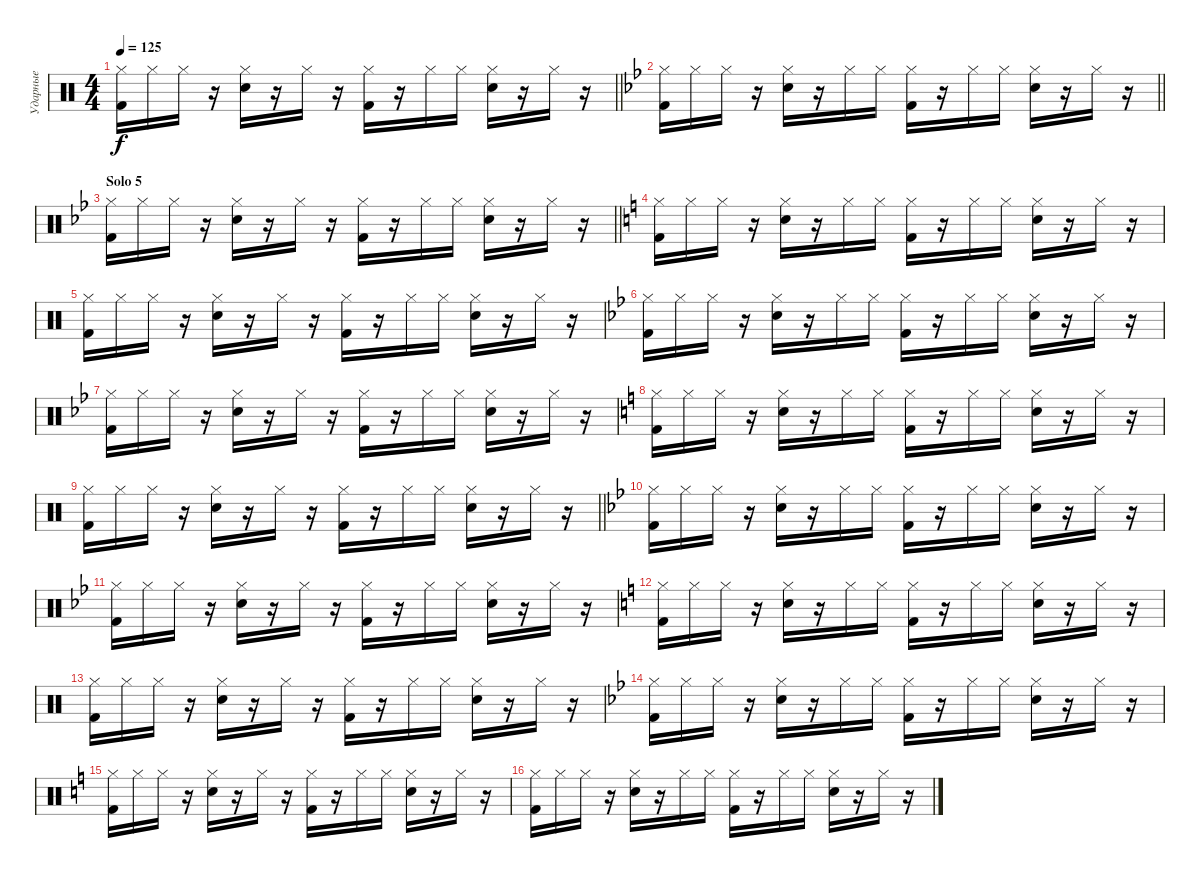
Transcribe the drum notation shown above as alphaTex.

\track ("Ударные" "Ударные") {instrument percussion}
\staff {score}
\articulation defaults
\ts (4 4)
\tempo 125
\clef neutral
\barLineRight lightlight
\ks c
("Kick (hit) 2" "Hi-Hat (closed)").16{dy f} "Hi-Hat (closed)".16 "Hi-Hat (closed)".16 r.16 ("Snare (hit) 2" "Hi-Hat (closed)").16 r.16 "Hi-Hat (closed)".16 r.16 ("Kick (hit) 2" "Hi-Hat (closed)").16 r.16 "Hi-Hat (closed)".16 "Hi-Hat (closed)".16 ("Snare (hit) 2" "Hi-Hat (closed)").16 r.16 "Hi-Hat (closed)".16 r.16 |
\barLineRight lightlight
\ks bb
("Kick (hit) 2" "Hi-Hat (closed)").16 "Hi-Hat (closed)".16 "Hi-Hat (closed)".16 r.16 ("Snare (hit) 2" "Hi-Hat (closed)").16 r.16 "Hi-Hat (closed)".16 "Hi-Hat (closed)".16 ("Kick (hit) 2" "Hi-Hat (closed)").16 r.16 "Hi-Hat (closed)".16 "Hi-Hat (closed)".16 ("Snare (hit) 2" "Hi-Hat (closed)").16 r.16 "Hi-Hat (closed)".16 r.16 |
\section ("" "Solo 5")
\barLineRight lightlight
("Kick (hit) 2" "Hi-Hat (closed)").16 "Hi-Hat (closed)".16 "Hi-Hat (closed)".16 r.16 ("Snare (hit) 2" "Hi-Hat (closed)").16 r.16 "Hi-Hat (closed)".16 r.16 ("Kick (hit) 2" "Hi-Hat (closed)").16 r.16 "Hi-Hat (closed)".16 "Hi-Hat (closed)".16 ("Snare (hit) 2" "Hi-Hat (closed)").16 r.16 "Hi-Hat (closed)".16 r.16 |
\ks c
("Kick (hit) 2" "Hi-Hat (closed)").16 "Hi-Hat (closed)".16 "Hi-Hat (closed)".16 r.16 ("Snare (hit) 2" "Hi-Hat (closed)").16 r.16 "Hi-Hat (closed)".16 "Hi-Hat (closed)".16 ("Kick (hit) 2" "Hi-Hat (closed)").16 r.16 "Hi-Hat (closed)".16 "Hi-Hat (closed)".16 ("Snare (hit) 2" "Hi-Hat (closed)").16 r.16 "Hi-Hat (closed)".16 r.16 |
("Kick (hit) 2" "Hi-Hat (closed)").16 "Hi-Hat (closed)".16 "Hi-Hat (closed)".16 r.16 ("Snare (hit) 2" "Hi-Hat (closed)").16 r.16 "Hi-Hat (closed)".16 r.16 ("Kick (hit) 2" "Hi-Hat (closed)").16 r.16 "Hi-Hat (closed)".16 "Hi-Hat (closed)".16 ("Snare (hit) 2" "Hi-Hat (closed)").16 r.16 "Hi-Hat (closed)".16 r.16 |
\ks bb
("Kick (hit) 2" "Hi-Hat (closed)").16 "Hi-Hat (closed)".16 "Hi-Hat (closed)".16 r.16 ("Snare (hit) 2" "Hi-Hat (closed)").16 r.16 "Hi-Hat (closed)".16 "Hi-Hat (closed)".16 ("Kick (hit) 2" "Hi-Hat (closed)").16 r.16 "Hi-Hat (closed)".16 "Hi-Hat (closed)".16 ("Snare (hit) 2" "Hi-Hat (closed)").16 r.16 "Hi-Hat (closed)".16 r.16 |
("Kick (hit) 2" "Hi-Hat (closed)").16 "Hi-Hat (closed)".16 "Hi-Hat (closed)".16 r.16 ("Snare (hit) 2" "Hi-Hat (closed)").16 r.16 "Hi-Hat (closed)".16 r.16 ("Kick (hit) 2" "Hi-Hat (closed)").16 r.16 "Hi-Hat (closed)".16 "Hi-Hat (closed)".16 ("Snare (hit) 2" "Hi-Hat (closed)").16 r.16 "Hi-Hat (closed)".16 r.16 |
\ks c
("Kick (hit) 2" "Hi-Hat (closed)").16 "Hi-Hat (closed)".16 "Hi-Hat (closed)".16 r.16 ("Snare (hit) 2" "Hi-Hat (closed)").16 r.16 "Hi-Hat (closed)".16 "Hi-Hat (closed)".16 ("Kick (hit) 2" "Hi-Hat (closed)").16 r.16 "Hi-Hat (closed)".16 "Hi-Hat (closed)".16 ("Snare (hit) 2" "Hi-Hat (closed)").16 r.16 "Hi-Hat (closed)".16 r.16 |
\barLineRight lightlight
("Kick (hit) 2" "Hi-Hat (closed)").16 "Hi-Hat (closed)".16 "Hi-Hat (closed)".16 r.16 ("Snare (hit) 2" "Hi-Hat (closed)").16 r.16 "Hi-Hat (closed)".16 r.16 ("Kick (hit) 2" "Hi-Hat (closed)").16 r.16 "Hi-Hat (closed)".16 "Hi-Hat (closed)".16 ("Snare (hit) 2" "Hi-Hat (closed)").16 r.16 "Hi-Hat (closed)".16 r.16 |
\ks bb
("Kick (hit) 2" "Hi-Hat (closed)").16 "Hi-Hat (closed)".16 "Hi-Hat (closed)".16 r.16 ("Snare (hit) 2" "Hi-Hat (closed)").16 r.16 "Hi-Hat (closed)".16 "Hi-Hat (closed)".16 ("Kick (hit) 2" "Hi-Hat (closed)").16 r.16 "Hi-Hat (closed)".16 "Hi-Hat (closed)".16 ("Snare (hit) 2" "Hi-Hat (closed)").16 r.16 "Hi-Hat (closed)".16 r.16 |
("Kick (hit) 2" "Hi-Hat (closed)").16 "Hi-Hat (closed)".16 "Hi-Hat (closed)".16 r.16 ("Snare (hit) 2" "Hi-Hat (closed)").16 r.16 "Hi-Hat (closed)".16 r.16 ("Kick (hit) 2" "Hi-Hat (closed)").16 r.16 "Hi-Hat (closed)".16 "Hi-Hat (closed)".16 ("Snare (hit) 2" "Hi-Hat (closed)").16 r.16 "Hi-Hat (closed)".16 r.16 |
\ks c
("Kick (hit) 2" "Hi-Hat (closed)").16 "Hi-Hat (closed)".16 "Hi-Hat (closed)".16 r.16 ("Snare (hit) 2" "Hi-Hat (closed)").16 r.16 "Hi-Hat (closed)".16 "Hi-Hat (closed)".16 ("Kick (hit) 2" "Hi-Hat (closed)").16 r.16 "Hi-Hat (closed)".16 "Hi-Hat (closed)".16 ("Snare (hit) 2" "Hi-Hat (closed)").16 r.16 "Hi-Hat (closed)".16 r.16 |
("Kick (hit) 2" "Hi-Hat (closed)").16 "Hi-Hat (closed)".16 "Hi-Hat (closed)".16 r.16 ("Snare (hit) 2" "Hi-Hat (closed)").16 r.16 "Hi-Hat (closed)".16 r.16 ("Kick (hit) 2" "Hi-Hat (closed)").16 r.16 "Hi-Hat (closed)".16 "Hi-Hat (closed)".16 ("Snare (hit) 2" "Hi-Hat (closed)").16 r.16 "Hi-Hat (closed)".16 r.16 |
\ks bb
("Kick (hit) 2" "Hi-Hat (closed)").16 "Hi-Hat (closed)".16 "Hi-Hat (closed)".16 r.16 ("Snare (hit) 2" "Hi-Hat (closed)").16 r.16 "Hi-Hat (closed)".16 "Hi-Hat (closed)".16 ("Kick (hit) 2" "Hi-Hat (closed)").16 r.16 "Hi-Hat (closed)".16 "Hi-Hat (closed)".16 ("Snare (hit) 2" "Hi-Hat (closed)").16 r.16 "Hi-Hat (closed)".16 r.16 |
\ks c
("Kick (hit) 2" "Hi-Hat (closed)").16 "Hi-Hat (closed)".16 "Hi-Hat (closed)".16 r.16 ("Snare (hit) 2" "Hi-Hat (closed)").16 r.16 "Hi-Hat (closed)".16 r.16 ("Kick (hit) 2" "Hi-Hat (closed)").16 r.16 "Hi-Hat (closed)".16 "Hi-Hat (closed)".16 ("Snare (hit) 2" "Hi-Hat (closed)").16 r.16 "Hi-Hat (closed)".16 r.16 |
("Kick (hit) 2" "Hi-Hat (closed)").16 "Hi-Hat (closed)".16 "Hi-Hat (closed)".16 r.16 ("Snare (hit) 2" "Hi-Hat (closed)").16 r.16 "Hi-Hat (closed)".16 "Hi-Hat (closed)".16 ("Kick (hit) 2" "Hi-Hat (closed)").16 r.16 "Hi-Hat (closed)".16 "Hi-Hat (closed)".16 ("Snare (hit) 2" "Hi-Hat (closed)").16 r.16 "Hi-Hat (closed)".16 r.16
